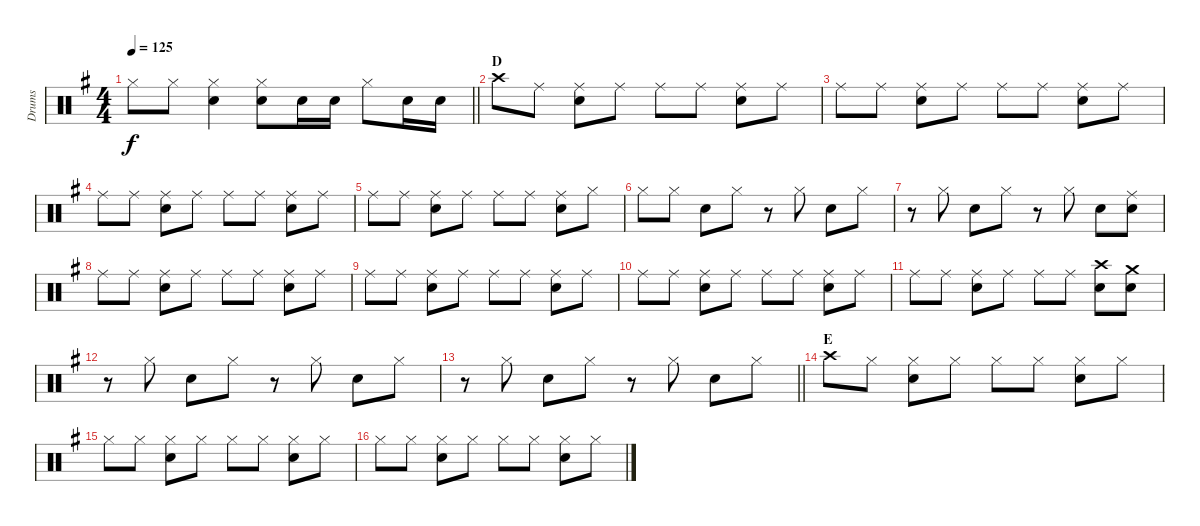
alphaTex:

\track ("Drums" "Drums") {instrument percussion}
\staff {score}
\articulation defaults
\ts (4 4)
\tempo 125
\clef neutral
\barLineRight lightlight
\ks g "Hi-Hat (closed)".8{dy f} "Hi-Hat (closed)".8
("Hi-Hat (closed)" "Snare (hit) 2").4 ("Hi-Hat (closed)" "Snare (hit) 2").8 "Snare (hit) 2".16 "Snare (hit) 2".16 "Hi-Hat (closed)".8 "Snare (hit) 2".16 "Snare (hit) 2".16 |
\section ("" "D")
"Crash high (hit)".8 "Ride (middle)".8 ("Ride (middle)" "Snare (hit) 2").8 "Ride (middle)".8 "Ride (middle)".8 "Ride (middle)".8 ("Ride (middle)" "Snare (hit) 2").8 "Ride (middle)".8 |
"Ride (middle)".8 "Ride (middle)".8 ("Ride (middle)" "Snare (hit) 2").8 "Ride (middle)".8 "Ride (middle)".8 "Ride (middle)".8 ("Ride (middle)" "Snare (hit) 2").8 "Ride (middle)".8 |
"Ride (middle)".8 "Ride (middle)".8 ("Ride (middle)" "Snare (hit) 2").8 "Ride (middle)".8 "Ride (middle)".8 "Ride (middle)".8 ("Ride (middle)" "Snare (hit) 2").8 "Ride (middle)".8 |
"Ride (middle)".8 "Ride (middle)".8 ("Ride (middle)" "Snare (hit) 2").8 "Ride (middle)".8 "Ride (middle)".8 "Ride (middle)".8 ("Ride (middle)" "Snare (hit) 2").8 "Hi-Hat (closed)".8 |
"Hi-Hat (closed)".8 "Hi-Hat (closed)".8 "Snare (hit) 2".8 "Hi-Hat (closed)".8 r.8 "Hi-Hat (closed)".8 "Snare (hit) 2".8 "Hi-Hat (closed)".8 |
r.8 "Hi-Hat (closed)".8 "Snare (hit) 2".8 "Hi-Hat (closed)".8 r.8 "Hi-Hat (closed)".8 "Snare (hit) 2".8 ("Ride (middle)" "Snare (hit) 2").8 |
"Ride (middle)".8 "Ride (middle)".8 ("Ride (middle)" "Snare (hit) 2").8 "Ride (middle)".8 "Ride (middle)".8 "Ride (middle)".8 ("Ride (middle)" "Snare (hit) 2").8 "Ride (middle)".8 |
"Ride (middle)".8 "Ride (middle)".8 ("Ride (middle)" "Snare (hit) 2").8 "Ride (middle)".8 "Ride (middle)".8 "Ride (middle)".8 ("Ride (middle)" "Snare (hit) 2").8 "Ride (middle)".8 |
"Ride (middle)".8 "Ride (middle)".8 ("Ride (middle)" "Snare (hit) 2").8 "Ride (middle)".8 "Ride (middle)".8 "Ride (middle)".8 ("Ride (middle)" "Snare (hit) 2").8 "Ride (middle)".8 |
"Ride (middle)".8 "Ride (middle)".8 ("Ride (middle)" "Snare (hit) 2").8 "Ride (middle)".8 "Ride (middle)".8 "Ride (middle)".8 ("Crash high (hit)" "Snare (hit) 2").8 ("Crash medium (hit)" "Snare (hit) 2").8 |
r.8 "Hi-Hat (closed)".8 "Snare (hit) 2".8 "Hi-Hat (closed)".8 r.8 "Hi-Hat (closed)".8 "Snare (hit) 2".8 "Hi-Hat (closed)".8 |
\barLineRight lightlight
r.8 "Hi-Hat (closed)".8 "Snare (hit) 2".8 "Hi-Hat (closed)".8 r.8 "Hi-Hat (closed)".8 "Snare (hit) 2".8 "Hi-Hat (closed)".8 |
\section ("" "E")
"Crash high (hit)".8 "Hi-Hat (closed)".8 ("Hi-Hat (closed)" "Snare (hit) 2").8 "Hi-Hat (closed)".8 "Hi-Hat (closed)".8 "Hi-Hat (closed)".8 ("Hi-Hat (closed)" "Snare (hit) 2").8 "Hi-Hat (closed)".8 |
"Hi-Hat (closed)".8 "Hi-Hat (closed)".8 ("Hi-Hat (closed)" "Snare (hit) 2").8 "Hi-Hat (closed)".8 "Hi-Hat (closed)".8 "Hi-Hat (closed)".8 ("Hi-Hat (closed)" "Snare (hit) 2").8 "Hi-Hat (closed)".8 |
"Hi-Hat (closed)".8 "Hi-Hat (closed)".8 ("Hi-Hat (closed)" "Snare (hit) 2").8 "Hi-Hat (closed)".8 "Hi-Hat (closed)".8 "Hi-Hat (closed)".8 ("Hi-Hat (closed)" "Snare (hit) 2").8 "Hi-Hat (closed)".8
